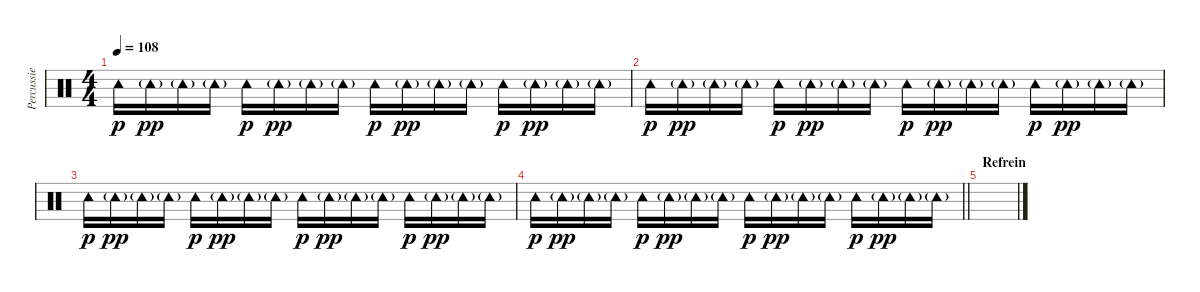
\track ("Percussie" "Percussie") {instrument percussion}
\staff {score}
\articulation defaults
\ts (4 4)
\tempo 108
\clef neutral
\ks c "Tambourine (hit)".16{dy p} "Tambourine (hit)"{g}.16{dy pp} "Tambourine (hit)"{g}.16 "Tambourine (hit)"{g}.16 "Tambourine (hit)".16{dy p} "Tambourine (hit)"{g}.16{dy pp} "Tambourine (hit)"{g}.16 "Tambourine (hit)"{g}.16 "Tambourine (hit)".16{dy p} "Tambourine (hit)"{g}.16{dy pp} "Tambourine (hit)"{g}.16 "Tambourine (hit)"{g}.16 "Tambourine (hit)".16{dy p} "Tambourine (hit)"{g}.16{dy pp} "Tambourine (hit)"{g}.16 "Tambourine (hit)"{g}.16
|
"Tambourine (hit)".16{dy p} "Tambourine (hit)"{g}.16{dy pp} "Tambourine (hit)"{g}.16 "Tambourine (hit)"{g}.16 "Tambourine (hit)".16{dy p} "Tambourine (hit)"{g}.16{dy pp} "Tambourine (hit)"{g}.16 "Tambourine (hit)"{g}.16 "Tambourine (hit)".16{dy p} "Tambourine (hit)"{g}.16{dy pp} "Tambourine (hit)"{g}.16 "Tambourine (hit)"{g}.16 "Tambourine (hit)".16{dy p} "Tambourine (hit)"{g}.16{dy pp} "Tambourine (hit)"{g}.16 "Tambourine (hit)"{g}.16 |
"Tambourine (hit)".16{dy p} "Tambourine (hit)"{g}.16{dy pp} "Tambourine (hit)"{g}.16 "Tambourine (hit)"{g}.16 "Tambourine (hit)".16{dy p} "Tambourine (hit)"{g}.16{dy pp} "Tambourine (hit)"{g}.16 "Tambourine (hit)"{g}.16 "Tambourine (hit)".16{dy p} "Tambourine (hit)"{g}.16{dy pp} "Tambourine (hit)"{g}.16 "Tambourine (hit)"{g}.16 "Tambourine (hit)".16{dy p} "Tambourine (hit)"{g}.16{dy pp} "Tambourine (hit)"{g}.16 "Tambourine (hit)"{g}.16 |
\barLineRight lightlight "Tambourine (hit)".16{dy p} "Tambourine (hit)"{g}.16{dy pp} "Tambourine (hit)"{g}.16 "Tambourine (hit)"{g}.16 "Tambourine (hit)".16{dy p} "Tambourine (hit)"{g}.16{dy pp} "Tambourine (hit)"{g}.16 "Tambourine (hit)"{g}.16 "Tambourine (hit)".16{dy p} "Tambourine (hit)"{g}.16{dy pp} "Tambourine (hit)"{g}.16 "Tambourine (hit)"{g}.16 "Tambourine (hit)".16{dy p} "Tambourine (hit)"{g}.16{dy pp} "Tambourine (hit)"{g}.16 "Tambourine (hit)"{g}.16
|
\section ("" "Refrein")
